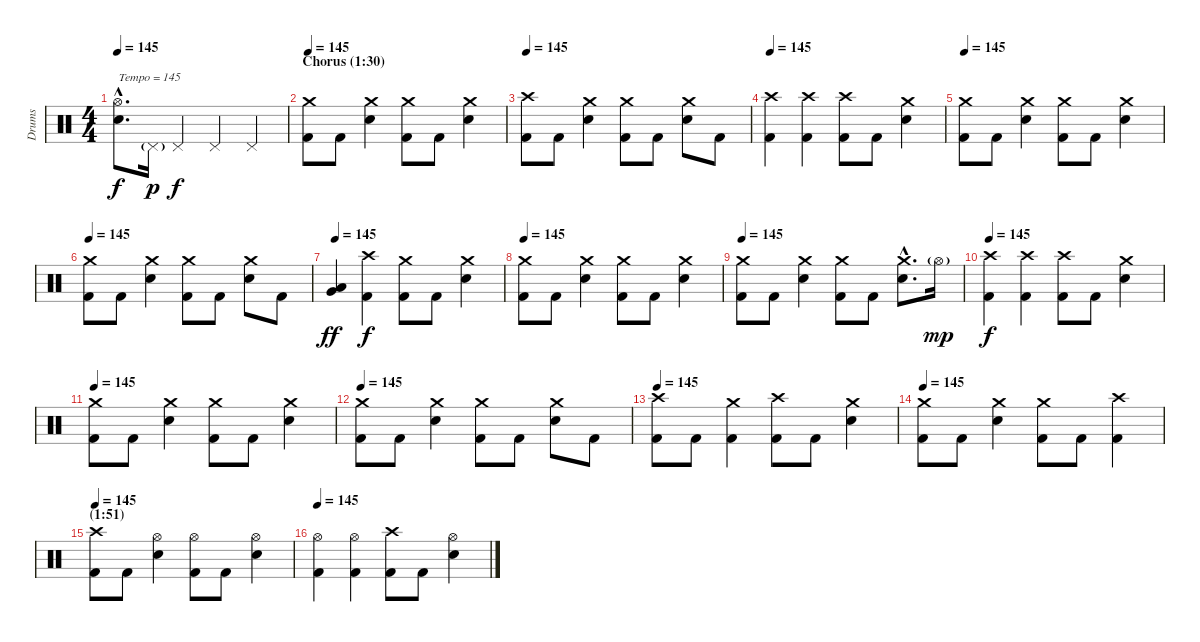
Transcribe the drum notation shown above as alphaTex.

\track ("Drums" "Drums") {instrument percussion}
\staff {score}
\articulation defaults
\ts (4 4)
\tempo 145
\clef neutral
\ks c
("Hi-Hat (open)"{hac} "Snare (hit) 2"{hac}).8{d txt "Tempo = 145" dy f} "Pedal Hi-Hat (hit)"{g}.16{dy p} "Pedal Hi-Hat (hit)".4{dy f} "Pedal Hi-Hat (hit)".4 "Pedal Hi-Hat (hit)".4 |
\section ("" "Chorus (1:30)")
\tempo 145
("Crash medium (hit)" "Kick (hit) 2").8 "Kick (hit) 2".8 ("Crash medium (hit)" "Snare (hit) 2").4 ("Crash medium (hit)" "Kick (hit) 2").8 "Kick (hit) 2".8 ("Crash medium (hit)" "Snare (hit) 2").4 |
\tempo 145
("Crash high (hit)" "Kick (hit) 2").8 "Kick (hit) 2".8 ("Crash medium (hit)" "Snare (hit) 2").4 ("Crash medium (hit)" "Kick (hit) 2").8 "Kick (hit) 2".8 ("Crash medium (hit)" "Snare (hit) 2").8 "Kick (hit) 2".8 |
\tempo 145
("Crash high (hit)" "Kick (hit) 2").4 ("Crash high (hit)" "Kick (hit) 2").4 ("Crash high (hit)" "Kick (hit) 2").8 "Kick (hit) 2".8 ("Crash medium (hit)" "Snare (hit) 2").4 |
\tempo 145
("Crash medium (hit)" "Kick (hit) 2").8 "Kick (hit) 2".8 ("Crash medium (hit)" "Snare (hit) 2").4 ("Crash medium (hit)" "Kick (hit) 2").8 "Kick (hit) 2".8 ("Crash medium (hit)" "Snare (hit) 2").4 |
\tempo 145
("Crash medium (hit)" "Kick (hit) 2").8 "Kick (hit) 2".8 ("Crash medium (hit)" "Snare (hit) 2").4 ("Crash medium (hit)" "Kick (hit) 2").8 "Kick (hit) 2".8 ("Crash medium (hit)" "Snare (hit) 2").8 "Kick (hit) 2".8 |
\tempo 145
("Low Tom (hit)" "Very Low Tom (hit)").4{dy ff} ("Crash high (hit)" "Kick (hit) 2").4{dy f} ("Crash medium (hit)" "Kick (hit) 2").8 "Kick (hit) 2".8 ("Crash medium (hit)" "Snare (hit) 2").4 |
\tempo 145
("Crash medium (hit)" "Kick (hit) 2").8 "Kick (hit) 2".8 ("Crash medium (hit)" "Snare (hit) 2").4 ("Crash medium (hit)" "Kick (hit) 2").8 "Kick (hit) 2".8 ("Crash medium (hit)" "Snare (hit) 2").4 |
\tempo 145
("Crash medium (hit)" "Kick (hit) 2").8 "Kick (hit) 2".8 ("Crash medium (hit)" "Snare (hit) 2").4 ("Crash medium (hit)" "Kick (hit) 2").8 "Kick (hit) 2".8 ("Crash medium (hit)"{hac} "Snare (hit) 2"{hac}).8{d} "Hi-Hat (open)"{g}.16{dy mp} |
\tempo 145
("Crash high (hit)" "Kick (hit) 2").4{dy f} ("Crash high (hit)" "Kick (hit) 2").4 ("Crash high (hit)" "Kick (hit) 2").8 "Kick (hit) 2".8 ("Crash medium (hit)" "Snare (hit) 2").4 |
\tempo 145
("Crash medium (hit)" "Kick (hit) 2").8 "Kick (hit) 2".8 ("Crash medium (hit)" "Snare (hit) 2").4 ("Crash medium (hit)" "Kick (hit) 2").8 "Kick (hit) 2".8 ("Crash medium (hit)" "Snare (hit) 2").4 |
\tempo 145
("Crash medium (hit)" "Kick (hit) 2").8 "Kick (hit) 2".8 ("Crash medium (hit)" "Snare (hit) 2").4 ("Crash medium (hit)" "Kick (hit) 2").8 "Kick (hit) 2".8 ("Crash medium (hit)" "Snare (hit) 2").8 "Kick (hit) 2".8 |
\tempo 145
("Crash high (hit)" "Kick (hit) 2").8 "Kick (hit) 2".8 ("Crash medium (hit)" "Kick (hit) 2").4 ("Crash high (hit)" "Kick (hit) 2").8 "Kick (hit) 2".8 ("Crash medium (hit)" "Snare (hit) 2").4 |
\tempo 145
("Crash medium (hit)" "Kick (hit) 2").8 "Kick (hit) 2".8 ("Crash medium (hit)" "Snare (hit) 2").4 ("Crash medium (hit)" "Kick (hit) 2").8 "Kick (hit) 2".8 ("Crash high (hit)" "Kick (hit) 2").4 |
\section ("" "(1:51)")
\tempo 145
("Crash high (hit)" "Kick (hit) 2").8 "Kick (hit) 2".8 ("Hi-Hat (open)" "Snare (hit) 2").4 ("Hi-Hat (open)" "Kick (hit) 2").8 "Kick (hit) 2".8 ("Hi-Hat (open)" "Snare (hit) 2").4 |
\tempo 145
("Hi-Hat (open)" "Kick (hit) 2").4 ("Hi-Hat (open)" "Kick (hit) 2").4 ("Crash high (hit)" "Kick (hit) 2").8 "Kick (hit) 2".8 ("Hi-Hat (open)" "Snare (hit) 2").4
